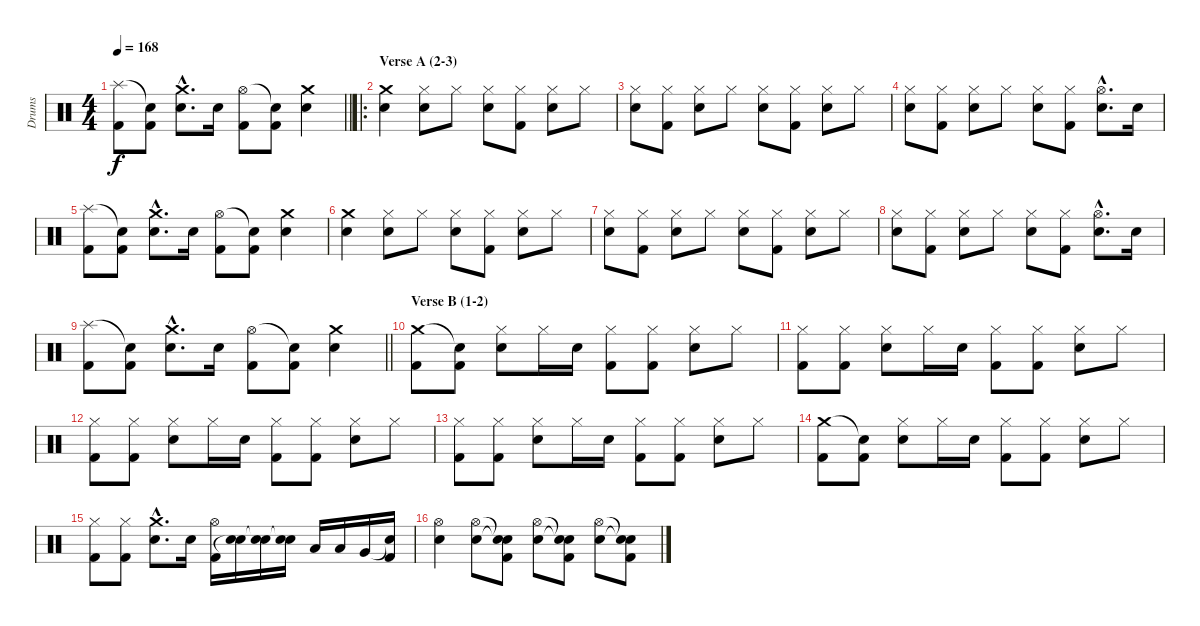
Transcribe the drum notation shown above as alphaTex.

\track ("Drums" "Drums") {instrument percussion}
\staff {score}
\articulation defaults
\ts (4 4)
\tempo 168
\clef neutral
\barLineRight lightlight
\ks c
("Splash (hit)" "Kick (hit) 2").8{dy f} ("Snare (hit)"{t} "Kick (hit) 2").8 ("Crash medium (hit)"{hac} "Electric Snare (hit)"{hac}).8{d} "Electric Snare (hit)".16 ("Hi-Hat (open)" "Kick (hit) 2").8 ("Snare (hit)"{t} "Kick (hit) 2").8 ("Crash medium (hit)" "Electric Snare (hit)").4 |
\ro
\section ("" "Verse A (2-3)")
("Crash medium (hit)" "Electric Snare (hit)").4 ("Hi-Hat (closed)" "Electric Snare (hit)").8 "Hi-Hat (closed)".8 ("Hi-Hat (closed)" "Electric Snare (hit)").8 ("Hi-Hat (closed)" "Kick (hit) 2").8 ("Hi-Hat (closed)" "Electric Snare (hit)").8 "Hi-Hat (closed)".8 |
("Hi-Hat (closed)" "Electric Snare (hit)").8 ("Hi-Hat (closed)" "Kick (hit) 2").8 ("Hi-Hat (closed)" "Electric Snare (hit)").8 "Hi-Hat (closed)".8 ("Hi-Hat (closed)" "Electric Snare (hit)").8 ("Hi-Hat (closed)" "Kick (hit) 2").8 ("Hi-Hat (closed)" "Electric Snare (hit)").8 "Hi-Hat (closed)".8 |
("Hi-Hat (closed)" "Electric Snare (hit)").8 ("Hi-Hat (closed)" "Kick (hit) 2").8 ("Hi-Hat (closed)" "Electric Snare (hit)").8 "Hi-Hat (closed)".8 ("Hi-Hat (closed)" "Electric Snare (hit)").8 ("Hi-Hat (closed)" "Kick (hit) 2").8 ("Hi-Hat (open)"{hac} "Electric Snare (hit)"{hac}).8{d} "Electric Snare (hit)".16 |
("Splash (hit)" "Kick (hit) 2").8 ("Snare (hit)"{t} "Kick (hit) 2").8 ("Crash medium (hit)"{hac} "Electric Snare (hit)"{hac}).8{d} "Electric Snare (hit)".16 ("Hi-Hat (open)" "Kick (hit) 2").8 ("Snare (hit)"{t} "Kick (hit) 2").8 ("Crash medium (hit)" "Electric Snare (hit)").4 |
("Crash medium (hit)" "Electric Snare (hit)").4 ("Hi-Hat (closed)" "Electric Snare (hit)").8 "Hi-Hat (closed)".8 ("Hi-Hat (closed)" "Electric Snare (hit)").8 ("Hi-Hat (closed)" "Kick (hit) 2").8 ("Hi-Hat (closed)" "Electric Snare (hit)").8 "Hi-Hat (closed)".8 |
("Hi-Hat (closed)" "Electric Snare (hit)").8 ("Hi-Hat (closed)" "Kick (hit) 2").8 ("Hi-Hat (closed)" "Electric Snare (hit)").8 "Hi-Hat (closed)".8 ("Hi-Hat (closed)" "Electric Snare (hit)").8 ("Hi-Hat (closed)" "Kick (hit) 2").8 ("Hi-Hat (closed)" "Electric Snare (hit)").8 "Hi-Hat (closed)".8 |
("Hi-Hat (closed)" "Electric Snare (hit)").8 ("Hi-Hat (closed)" "Kick (hit) 2").8 ("Hi-Hat (closed)" "Electric Snare (hit)").8 "Hi-Hat (closed)".8 ("Hi-Hat (closed)" "Electric Snare (hit)").8 ("Hi-Hat (closed)" "Kick (hit) 2").8 ("Hi-Hat (open)"{hac} "Electric Snare (hit)"{hac}).8{d} "Electric Snare (hit)".16 |
\barLineRight lightlight
("Splash (hit)" "Kick (hit) 2").8 ("Snare (hit)"{t} "Kick (hit) 2").8 ("Crash medium (hit)"{hac} "Electric Snare (hit)"{hac}).8{d} "Electric Snare (hit)".16 ("Hi-Hat (open)" "Kick (hit) 2").8 ("Snare (hit)"{t} "Kick (hit) 2").8 ("Crash medium (hit)" "Electric Snare (hit)").4 |
\section ("" "Verse B (1-2)")
("Crash medium (hit)" "Kick (hit) 2").8 ("Snare (hit)"{t} "Kick (hit) 2").8 ("Hi-Hat (closed)" "Electric Snare (hit)").8 "Hi-Hat (closed)".16 "Electric Snare (hit)".16 ("Hi-Hat (closed)" "Kick (hit) 2").8 ("Hi-Hat (closed)" "Kick (hit) 2").8 ("Hi-Hat (closed)" "Electric Snare (hit)").8 "Hi-Hat (closed)".8 |
("Hi-Hat (closed)" "Kick (hit) 2").8 ("Hi-Hat (closed)" "Kick (hit) 2").8 ("Hi-Hat (closed)" "Electric Snare (hit)").8 "Hi-Hat (closed)".16 "Electric Snare (hit)".16 ("Hi-Hat (closed)" "Kick (hit) 2").8 ("Hi-Hat (closed)" "Kick (hit) 2").8 ("Hi-Hat (closed)" "Electric Snare (hit)").8 "Hi-Hat (closed)".8 |
("Hi-Hat (closed)" "Kick (hit) 2").8 ("Hi-Hat (closed)" "Kick (hit) 2").8 ("Hi-Hat (closed)" "Electric Snare (hit)").8 "Hi-Hat (closed)".16 "Electric Snare (hit)".16 ("Hi-Hat (closed)" "Kick (hit) 2").8 ("Hi-Hat (closed)" "Kick (hit) 2").8 ("Hi-Hat (closed)" "Electric Snare (hit)").8 "Hi-Hat (closed)".8 |
("Hi-Hat (closed)" "Kick (hit) 2").8 ("Hi-Hat (closed)" "Kick (hit) 2").8 ("Hi-Hat (closed)" "Electric Snare (hit)").8 "Hi-Hat (closed)".16 "Electric Snare (hit)".16 ("Hi-Hat (closed)" "Kick (hit) 2").8 ("Hi-Hat (closed)" "Kick (hit) 2").8 ("Hi-Hat (closed)" "Electric Snare (hit)").8 "Hi-Hat (closed)".8 |
("Crash medium (hit)" "Kick (hit) 2").8 ("Snare (hit)"{t} "Kick (hit) 2").8 ("Hi-Hat (closed)" "Electric Snare (hit)").8 "Hi-Hat (closed)".16 "Electric Snare (hit)".16 ("Hi-Hat (closed)" "Kick (hit) 2").8 ("Hi-Hat (closed)" "Kick (hit) 2").8 ("Hi-Hat (closed)" "Electric Snare (hit)").8 "Hi-Hat (closed)".8 |
("Hi-Hat (closed)" "Kick (hit) 2").8 ("Hi-Hat (closed)" "Kick (hit) 2").8 ("Crash medium (hit)"{hac} "Electric Snare (hit)"{hac}).8{d} "Electric Snare (hit)".16 ("Hi-Hat (open)" "Kick (hit) 2").16 ("Electric Snare (hit)" "Snare (hit)"{t}).16 ("Electric Snare (hit)" "Snare (hit)"{t}).16 ("Electric Snare (hit)" "Snare (hit)"{t}).16 "Low Tom (hit)".16 "Low Tom (hit)".16 "Very Low Tom (hit)".16 ("Snare (hit)"{t} "Kick (hit) 2").16 |
("Hi-Hat (open)" "Electric Snare (hit)").4 ("Hi-Hat (open)" "Electric Snare (hit)").8 ("Snare (hit)"{t} "Snare (hit)"{t} "Kick (hit) 2").8 ("Hi-Hat (open)" "Electric Snare (hit)").8 ("Snare (hit)"{t} "Snare (hit)"{t} "Kick (hit) 2").8 ("Hi-Hat (open)" "Electric Snare (hit)").8 ("Snare (hit)"{t} "Snare (hit)"{t} "Kick (hit) 2").8
